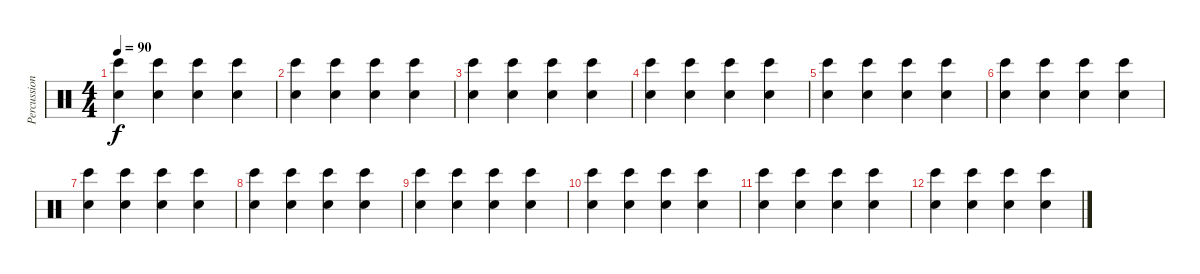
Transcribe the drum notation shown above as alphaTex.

\track ("Percussion" "Percussion") {instrument percussion}
\staff {score}
\articulation defaults
\ts (4 4)
\tempo 90
\clef neutral
\ks c
("Bongo High (hit)" "Hand Clap (hit)").4{dy f} ("Bongo High (hit)" "Hand Clap (hit)").4 ("Hand Clap (hit)" "Bongo High (hit)").4 ("Hand Clap (hit)" "Bongo High (hit)").4 |
("Hand Clap (hit)" "Bongo High (hit)").4 ("Bongo High (hit)" "Hand Clap (hit)").4 ("Hand Clap (hit)" "Bongo High (hit)").4 ("Hand Clap (hit)" "Bongo High (hit)").4 |
("Hand Clap (hit)" "Bongo High (hit)").4 ("Hand Clap (hit)" "Bongo High (hit)").4 ("Hand Clap (hit)" "Bongo High (hit)").4 ("Hand Clap (hit)" "Bongo High (hit)").4 |
("Hand Clap (hit)" "Bongo High (hit)").4 ("Hand Clap (hit)" "Bongo High (hit)").4 ("Hand Clap (hit)" "Bongo High (hit)").4 ("Hand Clap (hit)" "Bongo High (hit)").4 |
("Hand Clap (hit)" "Bongo High (hit)").4 ("Hand Clap (hit)" "Bongo High (hit)").4 ("Hand Clap (hit)" "Bongo High (hit)").4 ("Hand Clap (hit)" "Bongo High (hit)").4 |
("Hand Clap (hit)" "Bongo High (hit)").4 ("Hand Clap (hit)" "Bongo High (hit)").4 ("Hand Clap (hit)" "Bongo High (hit)").4 ("Hand Clap (hit)" "Bongo High (hit)").4 |
("Hand Clap (hit)" "Bongo High (hit)").4 ("Hand Clap (hit)" "Bongo High (hit)").4 ("Hand Clap (hit)" "Bongo High (hit)").4 ("Hand Clap (hit)" "Bongo High (hit)").4 |
("Hand Clap (hit)" "Bongo High (hit)").4 ("Hand Clap (hit)" "Bongo High (hit)").4 ("Hand Clap (hit)" "Bongo High (hit)").4 ("Hand Clap (hit)" "Bongo High (hit)").4 |
("Bongo High (hit)" "Hand Clap (hit)").4 ("Bongo High (hit)" "Hand Clap (hit)").4 ("Hand Clap (hit)" "Bongo High (hit)").4 ("Hand Clap (hit)" "Bongo High (hit)").4 |
("Hand Clap (hit)" "Bongo High (hit)").4 ("Bongo High (hit)" "Hand Clap (hit)").4 ("Hand Clap (hit)" "Bongo High (hit)").4 ("Hand Clap (hit)" "Bongo High (hit)").4 |
("Hand Clap (hit)" "Bongo High (hit)").4 ("Hand Clap (hit)" "Bongo High (hit)").4 ("Hand Clap (hit)" "Bongo High (hit)").4 ("Hand Clap (hit)" "Bongo High (hit)").4 |
("Hand Clap (hit)" "Bongo High (hit)").4 ("Hand Clap (hit)" "Bongo High (hit)").4 ("Hand Clap (hit)" "Bongo High (hit)").4 ("Hand Clap (hit)" "Bongo High (hit)").4
